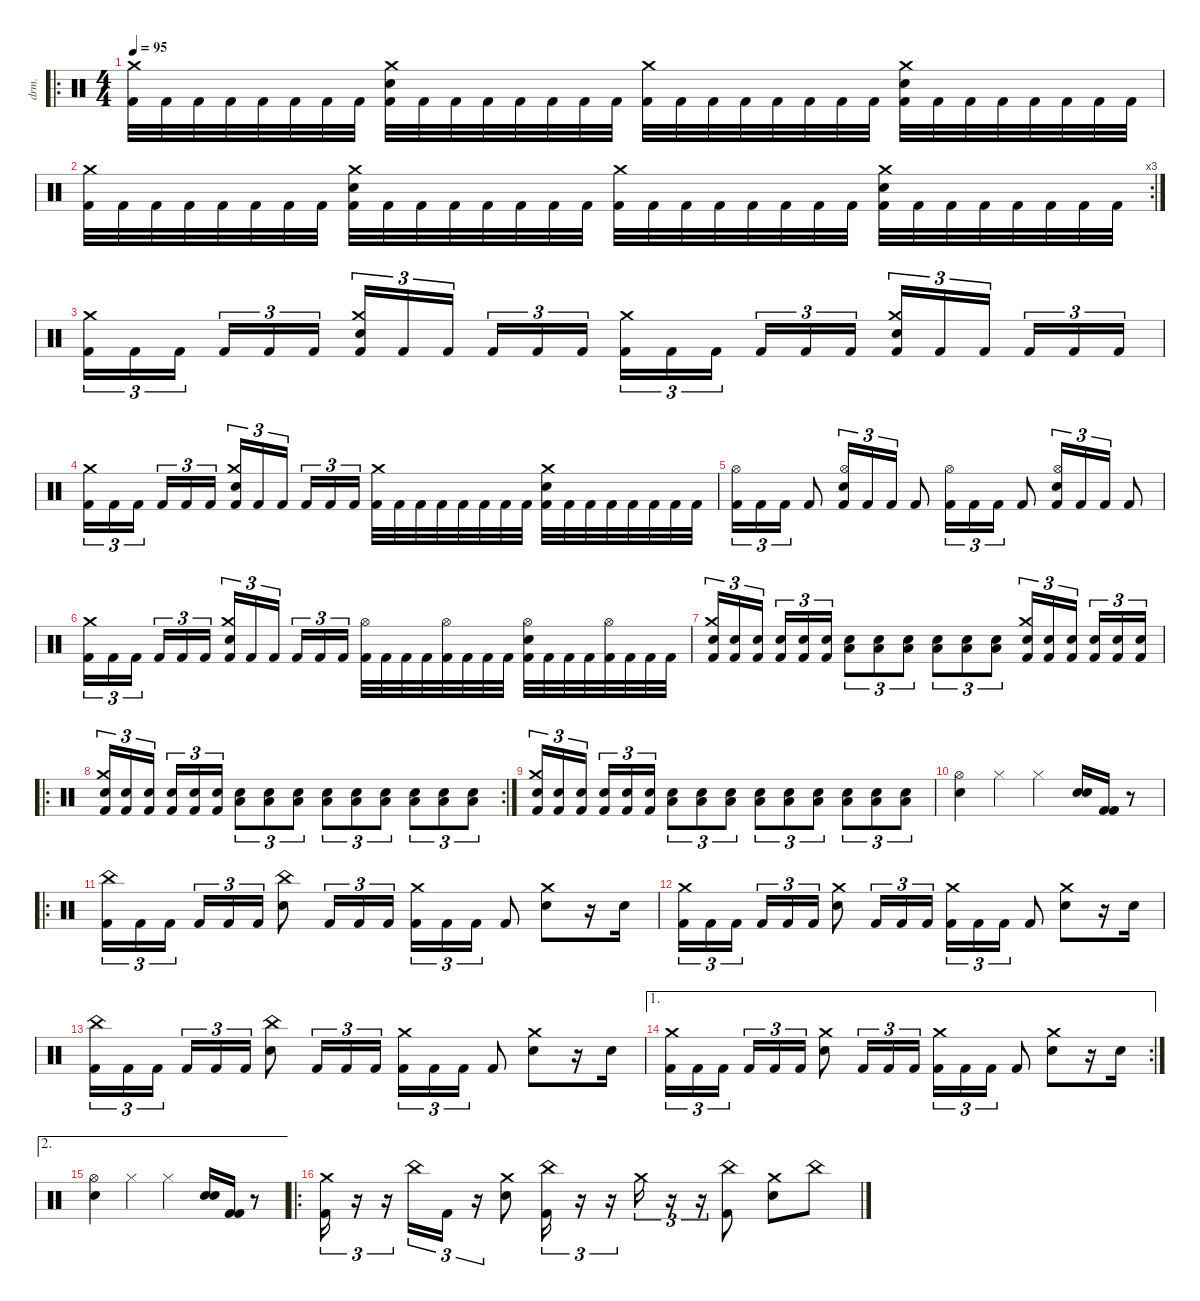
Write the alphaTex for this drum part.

\defaultSystemsLayout 4
\hideDynamics
\bracketExtendMode nobrackets
\otherSystemsTrackNameOrientation horizontal
\track ("FATTY!" "drm.") {instrument percussion}
\staff {score}
\articulation defaults
\ro
\ts (4 4)
\tempo 95
\clef neutral
\ks c
("Crash medium (hit)" "Kick (hit) 2").32{dy f beam Down} "Kick (hit) 2".32{beam Down} "Kick (hit) 2".32{beam Down} "Kick (hit) 2".32{beam Down} "Kick (hit) 2".32{beam Down} "Kick (hit) 2".32{beam Down} "Kick (hit) 2".32{beam Down} "Kick (hit) 2".32{beam Down} ("Crash medium (hit)" "Snare (hit) 2" "Kick (hit) 2").32{beam Down} "Kick (hit) 2".32{beam Down} "Kick (hit) 2".32{beam Down} "Kick (hit) 2".32{beam Down} "Kick (hit) 2".32{beam Down} "Kick (hit) 2".32{beam Down} "Kick (hit) 2".32{beam Down} "Kick (hit) 2".32{beam Down} ("Crash medium (hit)" "Kick (hit) 2").32{beam Down} "Kick (hit) 2".32{beam Down} "Kick (hit) 2".32{beam Down} "Kick (hit) 2".32{beam Down} "Kick (hit) 2".32{beam Down} "Kick (hit) 2".32{beam Down} "Kick (hit) 2".32{beam Down} "Kick (hit) 2".32{beam Down} ("Crash medium (hit)" "Snare (hit) 2" "Kick (hit) 2").32{beam Down} "Kick (hit) 2".32{beam Down} "Kick (hit) 2".32{beam Down} "Kick (hit) 2".32{beam Down} "Kick (hit) 2".32{beam Down} "Kick (hit) 2".32{beam Down} "Kick (hit) 2".32{beam Down} "Kick (hit) 2".32{beam Down} |
\rc 3
("Crash medium (hit)" "Kick (hit) 2").32{beam Down} "Kick (hit) 2".32{beam Down} "Kick (hit) 2".32{beam Down} "Kick (hit) 2".32{beam Down} "Kick (hit) 2".32{beam Down} "Kick (hit) 2".32{beam Down} "Kick (hit) 2".32{beam Down} "Kick (hit) 2".32{beam Down} ("Crash medium (hit)" "Snare (hit) 2" "Kick (hit) 2").32{beam Down} "Kick (hit) 2".32{beam Down} "Kick (hit) 2".32{beam Down} "Kick (hit) 2".32{beam Down} "Kick (hit) 2".32{beam Down} "Kick (hit) 2".32{beam Down} "Kick (hit) 2".32{beam Down} "Kick (hit) 2".32{beam Down} ("Crash medium (hit)" "Kick (hit) 2").32{beam Down} "Kick (hit) 2".32{beam Down} "Kick (hit) 2".32{beam Down} "Kick (hit) 2".32{beam Down} "Kick (hit) 2".32{beam Down} "Kick (hit) 2".32{beam Down} "Kick (hit) 2".32{beam Down} "Kick (hit) 2".32{beam Down} ("Crash medium (hit)" "Snare (hit) 2" "Kick (hit) 2").32{beam Down} "Kick (hit) 2".32{beam Down} "Kick (hit) 2".32{beam Down} "Kick (hit) 2".32{beam Down} "Kick (hit) 2".32{beam Down} "Kick (hit) 2".32{beam Down} "Kick (hit) 2".32{beam Down} "Kick (hit) 2".32{beam Down} |
("Crash medium (hit)" "Kick (hit) 2").16{tu (3 2) beam Down} "Kick (hit) 2".16{tu (3 2) beam Down} "Kick (hit) 2".16{tu (3 2) beam Down} "Kick (hit) 2".16{tu (3 2) beam Up} "Kick (hit) 2".16{tu (3 2) beam Up} "Kick (hit) 2".16{tu (3 2) beam Up} ("Crash medium (hit)" "Snare (hit) 2" "Kick (hit) 2").16{tu (3 2) beam Up} "Kick (hit) 2".16{tu (3 2) beam Up} "Kick (hit) 2".16{tu (3 2) beam Up} "Kick (hit) 2".16{tu (3 2) beam Up} "Kick (hit) 2".16{tu (3 2) beam Up} "Kick (hit) 2".16{tu (3 2) beam Up} ("Crash medium (hit)" "Kick (hit) 2").16{tu (3 2) beam Down} "Kick (hit) 2".16{tu (3 2) beam Down} "Kick (hit) 2".16{tu (3 2) beam Down} "Kick (hit) 2".16{tu (3 2) beam Up} "Kick (hit) 2".16{tu (3 2) beam Up} "Kick (hit) 2".16{tu (3 2) beam Up} ("Crash medium (hit)" "Snare (hit) 2" "Kick (hit) 2").16{tu (3 2) beam Up} "Kick (hit) 2".16{tu (3 2) beam Up} "Kick (hit) 2".16{tu (3 2) beam Up} "Kick (hit) 2".16{tu (3 2) beam Up} "Kick (hit) 2".16{tu (3 2) beam Up} "Kick (hit) 2".16{tu (3 2) beam Up} |
("Crash medium (hit)" "Kick (hit) 2").16{tu (3 2) beam Down} "Kick (hit) 2".16{tu (3 2) beam Down} "Kick (hit) 2".16{tu (3 2) beam Down} "Kick (hit) 2".16{tu (3 2) beam Up} "Kick (hit) 2".16{tu (3 2) beam Up} "Kick (hit) 2".16{tu (3 2) beam Up} ("Crash medium (hit)" "Snare (hit) 2" "Kick (hit) 2").16{tu (3 2) beam Up} "Kick (hit) 2".16{tu (3 2) beam Up} "Kick (hit) 2".16{tu (3 2) beam Up} "Kick (hit) 2".16{tu (3 2) beam Up} "Kick (hit) 2".16{tu (3 2) beam Up} "Kick (hit) 2".16{tu (3 2) beam Up} ("Crash medium (hit)" "Kick (hit) 2").32{beam Down} "Kick (hit) 2".32{beam Down} "Kick (hit) 2".32{beam Down} "Kick (hit) 2".32{beam Down} "Kick (hit) 2".32{beam Down} "Kick (hit) 2".32{beam Down} "Kick (hit) 2".32{beam Down} "Kick (hit) 2".32{beam Down} ("Crash medium (hit)" "Snare (hit) 2" "Kick (hit) 2").32{beam Down} "Kick (hit) 2".32{beam Down} "Kick (hit) 2".32{beam Down} "Kick (hit) 2".32{beam Down} "Kick (hit) 2".32{beam Down} "Kick (hit) 2".32{beam Down} "Kick (hit) 2".32{beam Down} "Kick (hit) 2".32{beam Down} |
("Hi-Hat (open)" "Kick (hit) 2").16{tu (3 2) beam Down} "Kick (hit) 2".16{tu (3 2) beam Down} "Kick (hit) 2".16{tu (3 2) beam Down} "Kick (hit) 2".8{beam Up} ("Hi-Hat (open)" "Snare (hit) 2" "Kick (hit) 2").16{tu (3 2) beam Up} "Kick (hit) 2".16{tu (3 2) beam Up} "Kick (hit) 2".16{tu (3 2) beam Up} "Kick (hit) 2".8{beam Up} ("Hi-Hat (open)" "Kick (hit) 2").16{tu (3 2) beam Down} "Kick (hit) 2".16{tu (3 2) beam Down} "Kick (hit) 2".16{tu (3 2) beam Down} "Kick (hit) 2".8{beam Up} ("Hi-Hat (open)" "Snare (hit) 2" "Kick (hit) 2").16{tu (3 2) beam Up} "Kick (hit) 2".16{tu (3 2) beam Up} "Kick (hit) 2".16{tu (3 2) beam Up} "Kick (hit) 2".8{beam Up} |
("Crash medium (hit)" "Kick (hit) 2").16{tu (3 2) beam Down} "Kick (hit) 2".16{tu (3 2) beam Down} "Kick (hit) 2".16{tu (3 2) beam Down} "Kick (hit) 2".16{tu (3 2) beam Up} "Kick (hit) 2".16{tu (3 2) beam Up} "Kick (hit) 2".16{tu (3 2) beam Up} ("Crash medium (hit)" "Snare (hit) 2" "Kick (hit) 2").16{tu (3 2) beam Up} "Kick (hit) 2".16{tu (3 2) beam Up} "Kick (hit) 2".16{tu (3 2) beam Up} "Kick (hit) 2".16{tu (3 2) beam Up} "Kick (hit) 2".16{tu (3 2) beam Up} "Kick (hit) 2".16{tu (3 2) beam Up} ("Hi-Hat (open)" "Kick (hit) 2").32{beam Down} "Kick (hit) 2".32{beam Down} "Kick (hit) 2".32{beam Down} "Kick (hit) 2".32{beam Down} ("Hi-Hat (open)" "Kick (hit) 2").32{beam Down} "Kick (hit) 2".32{beam Down} "Kick (hit) 2".32{beam Down} "Kick (hit) 2".32{beam Down} ("Hi-Hat (open)" "Snare (hit) 2" "Kick (hit) 2").32{beam Down} "Kick (hit) 2".32{beam Down} "Kick (hit) 2".32{beam Down} "Kick (hit) 2".32{beam Down} ("Hi-Hat (open)" "Kick (hit) 2").32{beam Down} "Kick (hit) 2".32{beam Down} "Kick (hit) 2".32{beam Down} "Kick (hit) 2".32{beam Down} |
("Crash medium (hit)" "Snare (hit) 2" "Kick (hit) 2").16{tu (3 2) beam Up} ("Snare (hit) 2" "Kick (hit) 2").16{tu (3 2) beam Up} ("Snare (hit) 2" "Kick (hit) 2").16{tu (3 2) beam Up} ("Snare (hit) 2" "Kick (hit) 2").16{tu (3 2) beam Up} ("Snare (hit) 2" "Kick (hit) 2").16{tu (3 2) beam Up} ("Snare (hit) 2" "Kick (hit) 2").16{tu (3 2) beam Up} ("Snare (hit) 2" "Low Tom (hit)").8{tu (3 2) beam Down} ("Snare (hit) 2" "Low Tom (hit)").8{tu (3 2) beam Down} ("Snare (hit) 2" "Low Tom (hit)").8{tu (3 2) beam Down} ("Snare (hit) 2" "Low Tom (hit)").8{tu (3 2) beam Down} ("Snare (hit) 2" "Low Tom (hit)").8{tu (3 2) beam Down} ("Snare (hit) 2" "Low Tom (hit)").8{tu (3 2) beam Down} ("Crash medium (hit)" "Snare (hit) 2" "Kick (hit) 2").16{tu (3 2) beam Up} ("Snare (hit) 2" "Kick (hit) 2").16{tu (3 2) beam Up} ("Snare (hit) 2" "Kick (hit) 2").16{tu (3 2) beam Up} ("Snare (hit) 2" "Kick (hit) 2").16{tu (3 2) beam Up} ("Snare (hit) 2" "Kick (hit) 2").16{tu (3 2) beam Up} ("Snare (hit) 2" "Kick (hit) 2").16{tu (3 2) beam Up} |
\ro
\rc 2
("Crash medium (hit)" "Snare (hit) 2" "Kick (hit) 2").16{tu (3 2) beam Up} ("Snare (hit) 2" "Kick (hit) 2").16{tu (3 2) beam Up} ("Snare (hit) 2" "Kick (hit) 2").16{tu (3 2) beam Up} ("Snare (hit) 2" "Kick (hit) 2").16{tu (3 2) beam Up} ("Snare (hit) 2" "Kick (hit) 2").16{tu (3 2) beam Up} ("Snare (hit) 2" "Kick (hit) 2").16{tu (3 2) beam Up} ("Snare (hit) 2" "Low Tom (hit)").8{tu (3 2) beam Down} ("Snare (hit) 2" "Low Tom (hit)").8{tu (3 2) beam Down} ("Snare (hit) 2" "Low Tom (hit)").8{tu (3 2) beam Down} ("Snare (hit) 2" "Low Tom (hit)").8{tu (3 2) beam Down} ("Snare (hit) 2" "Low Tom (hit)").8{tu (3 2) beam Down} ("Snare (hit) 2" "Low Tom (hit)").8{tu (3 2) beam Down} ("Snare (hit) 2" "Low Tom (hit)").8{tu (3 2) beam Down} ("Snare (hit) 2" "Low Tom (hit)").8{tu (3 2) beam Down} ("Snare (hit) 2" "Low Tom (hit)").8{tu (3 2) beam Down} |
("Crash medium (hit)" "Snare (hit) 2" "Kick (hit) 2").16{tu (3 2) beam Up} ("Snare (hit) 2" "Kick (hit) 2").16{tu (3 2) beam Up} ("Snare (hit) 2" "Kick (hit) 2").16{tu (3 2) beam Up} ("Snare (hit) 2" "Kick (hit) 2").16{tu (3 2) beam Up} ("Snare (hit) 2" "Kick (hit) 2").16{tu (3 2) beam Up} ("Snare (hit) 2" "Kick (hit) 2").16{tu (3 2) beam Up} ("Snare (hit) 2" "Low Tom (hit)").8{tu (3 2) beam Down} ("Snare (hit) 2" "Low Tom (hit)").8{tu (3 2) beam Down} ("Snare (hit) 2" "Low Tom (hit)").8{tu (3 2) beam Down} ("Snare (hit) 2" "Low Tom (hit)").8{tu (3 2) beam Down} ("Snare (hit) 2" "Low Tom (hit)").8{tu (3 2) beam Down} ("Snare (hit) 2" "Low Tom (hit)").8{tu (3 2) beam Down} ("Snare (hit) 2" "Low Tom (hit)").8{tu (3 2) beam Down} ("Snare (hit) 2" "Low Tom (hit)").8{tu (3 2) beam Down} ("Snare (hit) 2" "Low Tom (hit)").8{tu (3 2) beam Down} |
("Hi-Hat (open)" "Snare (hit) 2").4{beam Down} "Hi-Hat (closed)".4{beam Down} "Hi-Hat (closed)".4{beam Down} ("Snare (hit) 2" "Snare (hit) 2").16{beam Up} ("Kick (hit) 2" "Kick (hit) 2").16{beam Up} r.8{beam Up} |
\ro
("China (hit)" "Kick (hit) 2").16{tu (3 2) beam Down} "Kick (hit) 2".16{tu (3 2) beam Down} "Kick (hit) 2".16{tu (3 2) beam Down} "Kick (hit) 2".16{tu (3 2) beam Up} "Kick (hit) 2".16{tu (3 2) beam Up} "Kick (hit) 2".16{tu (3 2) beam Up} ("China (hit)" "Snare (hit) 2").8{beam Down} "Kick (hit) 2".16{tu (3 2) beam Up} "Kick (hit) 2".16{tu (3 2) beam Up} "Kick (hit) 2".16{tu (3 2) beam Up} ("Crash medium (hit)" "Kick (hit) 2").16{tu (3 2) beam Down} "Kick (hit) 2".16{tu (3 2) beam Down} "Kick (hit) 2".16{tu (3 2) beam Down} "Kick (hit) 2".8{beam Up} ("Crash medium (hit)" "Snare (hit) 2").8{beam Down} r.16{beam Down} "Snare (hit) 2".16{beam Down} |
("Crash medium (hit)" "Kick (hit) 2").16{tu (3 2) beam Down} "Kick (hit) 2".16{tu (3 2) beam Down} "Kick (hit) 2".16{tu (3 2) beam Down} "Kick (hit) 2".16{tu (3 2) beam Up} "Kick (hit) 2".16{tu (3 2) beam Up} "Kick (hit) 2".16{tu (3 2) beam Up} ("Crash medium (hit)" "Snare (hit) 2").8{beam Down} "Kick (hit) 2".16{tu (3 2) beam Up} "Kick (hit) 2".16{tu (3 2) beam Up} "Kick (hit) 2".16{tu (3 2) beam Up} ("Crash medium (hit)" "Kick (hit) 2").16{tu (3 2) beam Down} "Kick (hit) 2".16{tu (3 2) beam Down} "Kick (hit) 2".16{tu (3 2) beam Down} "Kick (hit) 2".8{beam Up} ("Crash medium (hit)" "Snare (hit) 2").8{beam Down} r.16{beam Down} "Snare (hit) 2".16{beam Down} |
("China (hit)" "Kick (hit) 2").16{tu (3 2) beam Down} "Kick (hit) 2".16{tu (3 2) beam Down} "Kick (hit) 2".16{tu (3 2) beam Down} "Kick (hit) 2".16{tu (3 2) beam Up} "Kick (hit) 2".16{tu (3 2) beam Up} "Kick (hit) 2".16{tu (3 2) beam Up} ("China (hit)" "Snare (hit) 2").8{beam Down} "Kick (hit) 2".16{tu (3 2) beam Up} "Kick (hit) 2".16{tu (3 2) beam Up} "Kick (hit) 2".16{tu (3 2) beam Up} ("Crash medium (hit)" "Kick (hit) 2").16{tu (3 2) beam Down} "Kick (hit) 2".16{tu (3 2) beam Down} "Kick (hit) 2".16{tu (3 2) beam Down} "Kick (hit) 2".8{beam Up} ("Crash medium (hit)" "Snare (hit) 2").8{beam Down} r.16{beam Down} "Snare (hit) 2".16{beam Down} |
\ae 1
\rc 2
("Crash medium (hit)" "Kick (hit) 2").16{tu (3 2) beam Down} "Kick (hit) 2".16{tu (3 2) beam Down} "Kick (hit) 2".16{tu (3 2) beam Down} "Kick (hit) 2".16{tu (3 2) beam Up} "Kick (hit) 2".16{tu (3 2) beam Up} "Kick (hit) 2".16{tu (3 2) beam Up} ("Crash medium (hit)" "Snare (hit) 2").8{beam Down} "Kick (hit) 2".16{tu (3 2) beam Up} "Kick (hit) 2".16{tu (3 2) beam Up} "Kick (hit) 2".16{tu (3 2) beam Up} ("Crash medium (hit)" "Kick (hit) 2").16{tu (3 2) beam Down} "Kick (hit) 2".16{tu (3 2) beam Down} "Kick (hit) 2".16{tu (3 2) beam Down} "Kick (hit) 2".8{beam Up} ("Crash medium (hit)" "Snare (hit) 2").8{beam Down} r.16{beam Down} "Snare (hit) 2".16{beam Down} |
\ae 2
("Hi-Hat (open)" "Snare (hit) 2").4{beam Down} "Hi-Hat (closed)".4{beam Down} "Hi-Hat (closed)".4{beam Down} ("Snare (hit) 2" "Snare (hit) 2").16{beam Up} ("Kick (hit) 2" "Kick (hit) 2").16{beam Up} r.8{beam Up} |
\ro
("Crash medium (hit)" "Kick (hit) 2").16{tu (3 2) beam Down} r.16{tu (3 2) beam Down} r.16{tu (3 2) beam Down} "China (hit)".16{tu (3 2) beam Down} "Kick (hit) 2".16{tu (3 2) beam Down} r.16{tu (3 2) beam Down} ("Crash medium (hit)" "Snare (hit) 2").8{beam Down} ("China (hit)" "Kick (hit) 2").16{tu (3 2) beam Down} r.16{tu (3 2) beam Down} r.16{tu (3 2) beam Down} "Crash medium (hit)".16{tu (3 2) beam Down} r.16{tu (3 2) beam Down} r.16{tu (3 2) beam Down} ("China (hit)" "Kick (hit) 2").8{beam Down} ("Crash medium (hit)" "Snare (hit) 2").8{beam Down} "China (hit)".8{beam Down}
